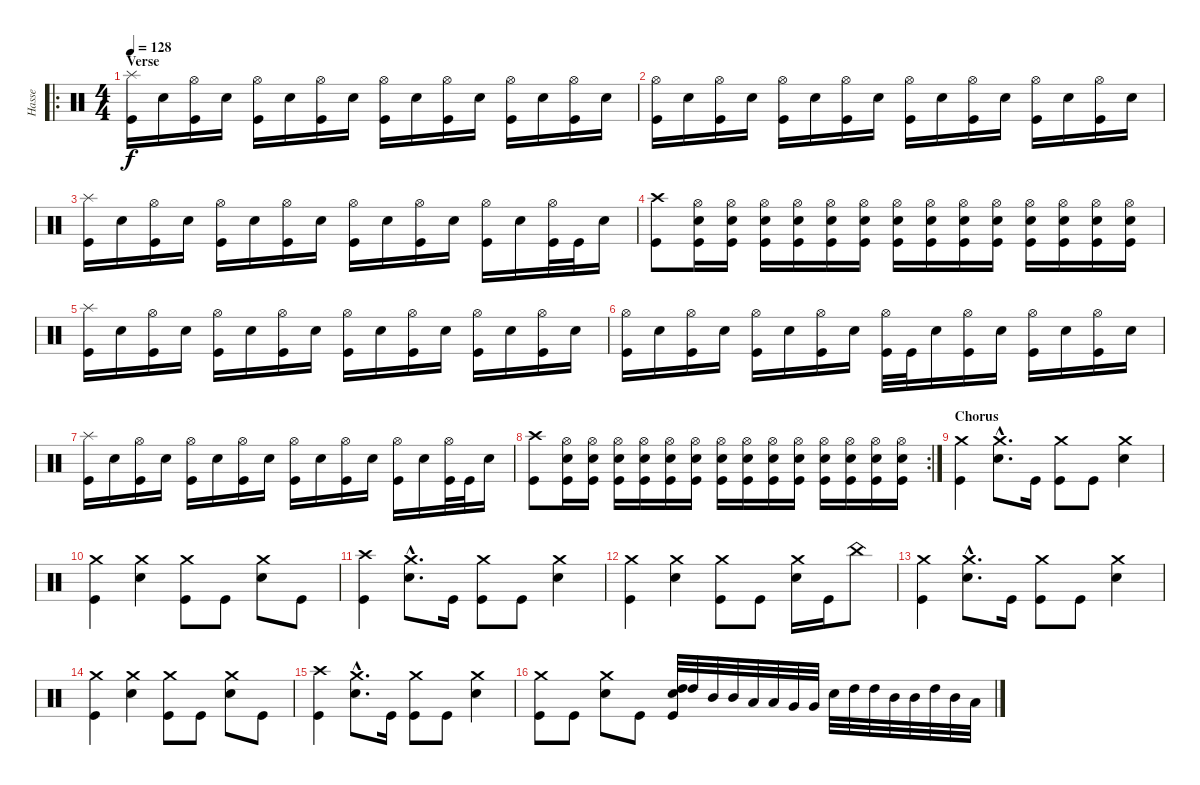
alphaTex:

\track ("Hasse" "Hasse") {instrument percussion}
\staff {score}
\articulation defaults
\ro
\ts (4 4)
\section ("" "Verse")
\tempo 128
\clef neutral
\ks c
("Splash (hit)" "Kick (hit)").16{dy f} "Snare (hit) 2".16 ("Hi-Hat (open)" "Kick (hit)").16 "Snare (hit) 2".16 ("Hi-Hat (open)" "Kick (hit)").16 "Snare (hit) 2".16 ("Hi-Hat (open)" "Kick (hit)").16 "Snare (hit) 2".16 ("Hi-Hat (open)" "Kick (hit)").16 "Snare (hit) 2".16 ("Hi-Hat (open)" "Kick (hit)").16 "Snare (hit) 2".16 ("Hi-Hat (open)" "Kick (hit)").16 "Snare (hit) 2".16 ("Hi-Hat (open)" "Kick (hit)").16 "Snare (hit) 2".16 |
("Hi-Hat (open)" "Kick (hit)").16 "Snare (hit) 2".16 ("Hi-Hat (open)" "Kick (hit)").16 "Snare (hit) 2".16 ("Hi-Hat (open)" "Kick (hit)").16 "Snare (hit) 2".16 ("Hi-Hat (open)" "Kick (hit)").16 "Snare (hit) 2".16 ("Hi-Hat (open)" "Kick (hit)").16 "Snare (hit) 2".16 ("Hi-Hat (open)" "Kick (hit)").16 "Snare (hit) 2".16 ("Hi-Hat (open)" "Kick (hit)").16 "Snare (hit) 2".16 ("Hi-Hat (open)" "Kick (hit)").16 "Snare (hit) 2".16 |
("Splash (hit)" "Kick (hit)").16 "Snare (hit) 2".16 ("Hi-Hat (open)" "Kick (hit)").16 "Snare (hit) 2".16 ("Hi-Hat (open)" "Kick (hit)").16 "Snare (hit) 2".16 ("Hi-Hat (open)" "Kick (hit)").16 "Snare (hit) 2".16 ("Hi-Hat (open)" "Kick (hit)").16 "Snare (hit) 2".16 ("Hi-Hat (open)" "Kick (hit)").16 "Snare (hit) 2".16 ("Hi-Hat (open)" "Kick (hit)").16 "Snare (hit) 2".16 ("Hi-Hat (open)" "Kick (hit)").32 "Kick (hit)".32 "Snare (hit) 2".16 |
("Crash high (hit)" "Kick (hit)").8 ("Hi-Hat (open)" "Snare (hit) 2" "Kick (hit)").16 ("Hi-Hat (open)" "Snare (hit) 2" "Kick (hit)").16 ("Hi-Hat (open)" "Snare (hit) 2" "Kick (hit)").16 ("Hi-Hat (open)" "Snare (hit) 2" "Kick (hit)").16 ("Hi-Hat (open)" "Snare (hit) 2" "Kick (hit)").16 ("Hi-Hat (open)" "Snare (hit) 2" "Kick (hit)").16 ("Hi-Hat (open)" "Snare (hit) 2" "Kick (hit)").16 ("Hi-Hat (open)" "Snare (hit) 2" "Kick (hit)").16 ("Hi-Hat (open)" "Snare (hit) 2" "Kick (hit)").16 ("Hi-Hat (open)" "Snare (hit) 2" "Kick (hit)").16 ("Hi-Hat (open)" "Snare (hit) 2" "Kick (hit)").16 ("Hi-Hat (open)" "Snare (hit) 2" "Kick (hit)").16 ("Hi-Hat (open)" "Snare (hit) 2" "Kick (hit)").16 ("Hi-Hat (open)" "Snare (hit) 2" "Kick (hit)").16 |
("Splash (hit)" "Kick (hit)").16 "Snare (hit) 2".16 ("Hi-Hat (open)" "Kick (hit)").16 "Snare (hit) 2".16 ("Hi-Hat (open)" "Kick (hit)").16 "Snare (hit) 2".16 ("Hi-Hat (open)" "Kick (hit)").16 "Snare (hit) 2".16 ("Hi-Hat (open)" "Kick (hit)").16 "Snare (hit) 2".16 ("Hi-Hat (open)" "Kick (hit)").16 "Snare (hit) 2".16 ("Hi-Hat (open)" "Kick (hit)").16 "Snare (hit) 2".16 ("Hi-Hat (open)" "Kick (hit)").16 "Snare (hit) 2".16 |
("Hi-Hat (open)" "Kick (hit)").16 "Snare (hit) 2".16 ("Hi-Hat (open)" "Kick (hit)").16 "Snare (hit) 2".16 ("Hi-Hat (open)" "Kick (hit)").16 "Snare (hit) 2".16 ("Hi-Hat (open)" "Kick (hit)").16 "Snare (hit) 2".16 ("Hi-Hat (open)" "Kick (hit)").32 "Kick (hit)".32 "Snare (hit) 2".16 ("Hi-Hat (open)" "Kick (hit)").16 "Snare (hit) 2".16 ("Hi-Hat (open)" "Kick (hit)").16 "Snare (hit) 2".16 ("Hi-Hat (open)" "Kick (hit)").16 "Snare (hit) 2".16 |
("Splash (hit)" "Kick (hit)").16 "Snare (hit) 2".16 ("Hi-Hat (open)" "Kick (hit)").16 "Snare (hit) 2".16 ("Hi-Hat (open)" "Kick (hit)").16 "Snare (hit) 2".16 ("Hi-Hat (open)" "Kick (hit)").16 "Snare (hit) 2".16 ("Hi-Hat (open)" "Kick (hit)").16 "Snare (hit) 2".16 ("Hi-Hat (open)" "Kick (hit)").16 "Snare (hit) 2".16 ("Hi-Hat (open)" "Kick (hit)").16 "Snare (hit) 2".16 ("Hi-Hat (open)" "Kick (hit)").32 "Kick (hit)".32 "Snare (hit) 2".16 |
\rc 2
("Crash high (hit)" "Kick (hit)").8 ("Hi-Hat (open)" "Snare (hit) 2" "Kick (hit)").16 ("Hi-Hat (open)" "Snare (hit) 2" "Kick (hit)").16 ("Hi-Hat (open)" "Snare (hit) 2" "Kick (hit)").16 ("Hi-Hat (open)" "Snare (hit) 2" "Kick (hit)").16 ("Hi-Hat (open)" "Snare (hit) 2" "Kick (hit)").16 ("Hi-Hat (open)" "Snare (hit) 2" "Kick (hit)").16 ("Hi-Hat (open)" "Snare (hit) 2" "Kick (hit)").16 ("Hi-Hat (open)" "Snare (hit) 2" "Kick (hit)").16 ("Hi-Hat (open)" "Snare (hit) 2" "Kick (hit)").16 ("Hi-Hat (open)" "Snare (hit) 2" "Kick (hit)").16 ("Hi-Hat (open)" "Snare (hit) 2" "Kick (hit)").16 ("Hi-Hat (open)" "Snare (hit) 2" "Kick (hit)").16 ("Hi-Hat (open)" "Snare (hit) 2" "Kick (hit)").16 ("Hi-Hat (open)" "Snare (hit) 2" "Kick (hit)").16 |
\section ("" "Chorus")
("Crash medium (hit)" "Kick (hit)").4 ("Crash medium (hit)"{hac} "Snare (hit) 2"{hac}).8{d} "Kick (hit)".16 ("Crash medium (hit)" "Kick (hit)").8 "Kick (hit)".8 ("Crash medium (hit)" "Snare (hit) 2").4 |
("Crash medium (hit)" "Kick (hit)").4 ("Crash medium (hit)" "Snare (hit) 2").4 ("Crash medium (hit)" "Kick (hit)").8 "Kick (hit)".8 ("Crash medium (hit)" "Snare (hit) 2").8 "Kick (hit)".8 |
("Crash high (hit)" "Kick (hit)").4 ("Crash medium (hit)"{hac} "Snare (hit) 2"{hac}).8{d} "Kick (hit)".16 ("Crash medium (hit)" "Kick (hit)").8 "Kick (hit)".8 ("Crash medium (hit)" "Snare (hit) 2").4 |
("Crash medium (hit)" "Kick (hit)").4 ("Crash medium (hit)" "Snare (hit) 2").4 ("Crash medium (hit)" "Kick (hit)").8 "Kick (hit)".8 ("Crash medium (hit)" "Snare (hit) 2").16 "Kick (hit)".16 "China (hit)".8 |
("Crash medium (hit)" "Kick (hit)").4 ("Crash medium (hit)"{hac} "Snare (hit) 2"{hac}).8{d} "Kick (hit)".16 ("Crash medium (hit)" "Kick (hit)").8 "Kick (hit)".8 ("Crash medium (hit)" "Snare (hit) 2").4 |
("Crash medium (hit)" "Kick (hit)").4 ("Crash medium (hit)" "Snare (hit) 2").4 ("Crash medium (hit)" "Kick (hit)").8 "Kick (hit)".8 ("Crash medium (hit)" "Snare (hit) 2").8 "Kick (hit)".8 |
("Crash high (hit)" "Kick (hit)").4 ("Crash medium (hit)"{hac} "Snare (hit) 2"{hac}).8{d} "Kick (hit)".16 ("Crash medium (hit)" "Kick (hit)").8 "Kick (hit)".8 ("Crash medium (hit)" "Snare (hit) 2").4 |
("Crash medium (hit)" "Kick (hit)").8 "Kick (hit)".8 ("Crash medium (hit)" "Snare (hit) 2").8 "Kick (hit)".8 ("High Tom (hit)" "Snare (hit) 2" "Kick (hit)").32 "High Tom (hit)".32 "Mid Tom (hit)".32 "Mid Tom (hit)".32 "Low Tom (hit)".32 "Low Tom (hit)".32 "Very Low Tom (hit)".32 "Very Low Tom (hit)".32 "Snare (hit) 2".32 "High Tom (hit)".32 "High Tom (hit)".32 "Mid Tom (hit)".32 "Mid Tom (hit)".32 "High Tom (hit)".32 "Mid Tom (hit)".32 "Low Tom (hit)".32
